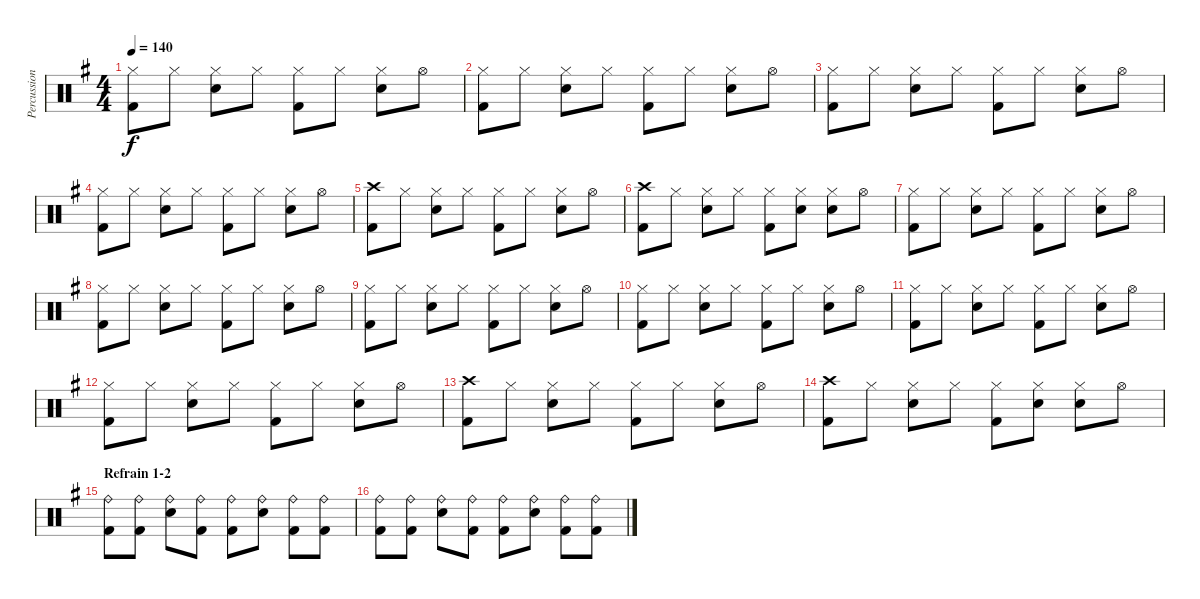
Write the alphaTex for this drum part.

\track ("Percussions" "Percussion") {instrument percussion}
\staff {score}
\articulation defaults
\ts (4 4)
\tempo 140
\clef neutral
\ks g
("Hi-Hat (closed)" "Kick (hit) 2").8{dy f} "Hi-Hat (closed)".8 ("Hi-Hat (closed)" "Snare (hit) 2").8 "Hi-Hat (closed)".8 ("Hi-Hat (closed)" "Kick (hit) 2").8 "Hi-Hat (closed)".8 ("Hi-Hat (closed)" "Snare (hit) 2").8 "Hi-Hat (open)".8 |
("Hi-Hat (closed)" "Kick (hit) 2").8 "Hi-Hat (closed)".8 ("Hi-Hat (closed)" "Snare (hit) 2").8 "Hi-Hat (closed)".8 ("Hi-Hat (closed)" "Kick (hit) 2").8 "Hi-Hat (closed)".8 ("Hi-Hat (closed)" "Snare (hit) 2").8 "Hi-Hat (open)".8 |
("Hi-Hat (closed)" "Kick (hit) 2").8 "Hi-Hat (closed)".8 ("Hi-Hat (closed)" "Snare (hit) 2").8 "Hi-Hat (closed)".8 ("Hi-Hat (closed)" "Kick (hit) 2").8 "Hi-Hat (closed)".8 ("Hi-Hat (closed)" "Snare (hit) 2").8 "Hi-Hat (open)".8 |
("Hi-Hat (closed)" "Kick (hit) 2").8 "Hi-Hat (closed)".8 ("Hi-Hat (closed)" "Snare (hit) 2").8 "Hi-Hat (closed)".8 ("Hi-Hat (closed)" "Kick (hit) 2").8 "Hi-Hat (closed)".8 ("Hi-Hat (closed)" "Snare (hit) 2").8 "Hi-Hat (open)".8 |
("Crash high (hit)" "Kick (hit) 2").8 "Hi-Hat (closed)".8 ("Hi-Hat (closed)" "Snare (hit) 2").8 "Hi-Hat (closed)".8 ("Hi-Hat (closed)" "Kick (hit) 2").8 "Hi-Hat (closed)".8 ("Hi-Hat (closed)" "Snare (hit) 2").8 "Hi-Hat (open)".8 |
("Crash high (hit)" "Kick (hit) 2").8 "Hi-Hat (closed)".8 ("Hi-Hat (closed)" "Snare (hit) 2").8 "Hi-Hat (closed)".8 ("Hi-Hat (closed)" "Kick (hit) 2").8 ("Hi-Hat (closed)" "Snare (hit) 2").8 ("Hi-Hat (closed)" "Snare (hit) 2").8 "Hi-Hat (open)".8 |
("Hi-Hat (closed)" "Kick (hit) 2").8 "Hi-Hat (closed)".8 ("Hi-Hat (closed)" "Snare (hit) 2").8 "Hi-Hat (closed)".8 ("Hi-Hat (closed)" "Kick (hit) 2").8 "Hi-Hat (closed)".8 ("Hi-Hat (closed)" "Snare (hit) 2").8 "Hi-Hat (open)".8 |
("Hi-Hat (closed)" "Kick (hit) 2").8 "Hi-Hat (closed)".8 ("Hi-Hat (closed)" "Snare (hit) 2").8 "Hi-Hat (closed)".8 ("Hi-Hat (closed)" "Kick (hit) 2").8 "Hi-Hat (closed)".8 ("Hi-Hat (closed)" "Snare (hit) 2").8 "Hi-Hat (open)".8 |
("Hi-Hat (closed)" "Kick (hit) 2").8 "Hi-Hat (closed)".8 ("Hi-Hat (closed)" "Snare (hit) 2").8 "Hi-Hat (closed)".8 ("Hi-Hat (closed)" "Kick (hit) 2").8 "Hi-Hat (closed)".8 ("Hi-Hat (closed)" "Snare (hit) 2").8 "Hi-Hat (open)".8 |
("Hi-Hat (closed)" "Kick (hit) 2").8 "Hi-Hat (closed)".8 ("Hi-Hat (closed)" "Snare (hit) 2").8 "Hi-Hat (closed)".8 ("Hi-Hat (closed)" "Kick (hit) 2").8 "Hi-Hat (closed)".8 ("Hi-Hat (closed)" "Snare (hit) 2").8 "Hi-Hat (open)".8 |
("Hi-Hat (closed)" "Kick (hit) 2").8 "Hi-Hat (closed)".8 ("Hi-Hat (closed)" "Snare (hit) 2").8 "Hi-Hat (closed)".8 ("Hi-Hat (closed)" "Kick (hit) 2").8 "Hi-Hat (closed)".8 ("Hi-Hat (closed)" "Snare (hit) 2").8 "Hi-Hat (open)".8 |
("Hi-Hat (closed)" "Kick (hit) 2").8 "Hi-Hat (closed)".8 ("Hi-Hat (closed)" "Snare (hit) 2").8 "Hi-Hat (closed)".8 ("Hi-Hat (closed)" "Kick (hit) 2").8 "Hi-Hat (closed)".8 ("Hi-Hat (closed)" "Snare (hit) 2").8 "Hi-Hat (open)".8 |
("Crash high (hit)" "Kick (hit) 2").8 "Hi-Hat (closed)".8 ("Hi-Hat (closed)" "Snare (hit) 2").8 "Hi-Hat (closed)".8 ("Hi-Hat (closed)" "Kick (hit) 2").8 "Hi-Hat (closed)".8 ("Hi-Hat (closed)" "Snare (hit) 2").8 "Hi-Hat (open)".8 |
("Crash high (hit)" "Kick (hit) 2").8 "Hi-Hat (closed)".8 ("Hi-Hat (closed)" "Snare (hit) 2").8 "Hi-Hat (closed)".8 ("Hi-Hat (closed)" "Kick (hit) 2").8 ("Hi-Hat (closed)" "Snare (hit) 2").8 ("Hi-Hat (closed)" "Snare (hit) 2").8 "Hi-Hat (open)".8 |
\section ("" "Refrain 1-2")
("Ride (bell)" "Kick (hit) 2").8 ("Ride (bell)" "Kick (hit) 2").8 ("Ride (bell)" "Snare (hit) 2").8 ("Ride (bell)" "Kick (hit) 2").8 ("Ride (bell)" "Kick (hit) 2").8 ("Ride (bell)" "Snare (hit) 2").8 ("Ride (bell)" "Kick (hit) 2").8 ("Ride (bell)" "Kick (hit) 2").8 |
("Ride (bell)" "Kick (hit) 2").8 ("Ride (bell)" "Kick (hit) 2").8 ("Ride (bell)" "Snare (hit) 2").8 ("Ride (bell)" "Kick (hit) 2").8 ("Ride (bell)" "Kick (hit) 2").8 ("Ride (bell)" "Snare (hit) 2").8 ("Ride (bell)" "Kick (hit) 2").8 ("Ride (bell)" "Kick (hit) 2").8
